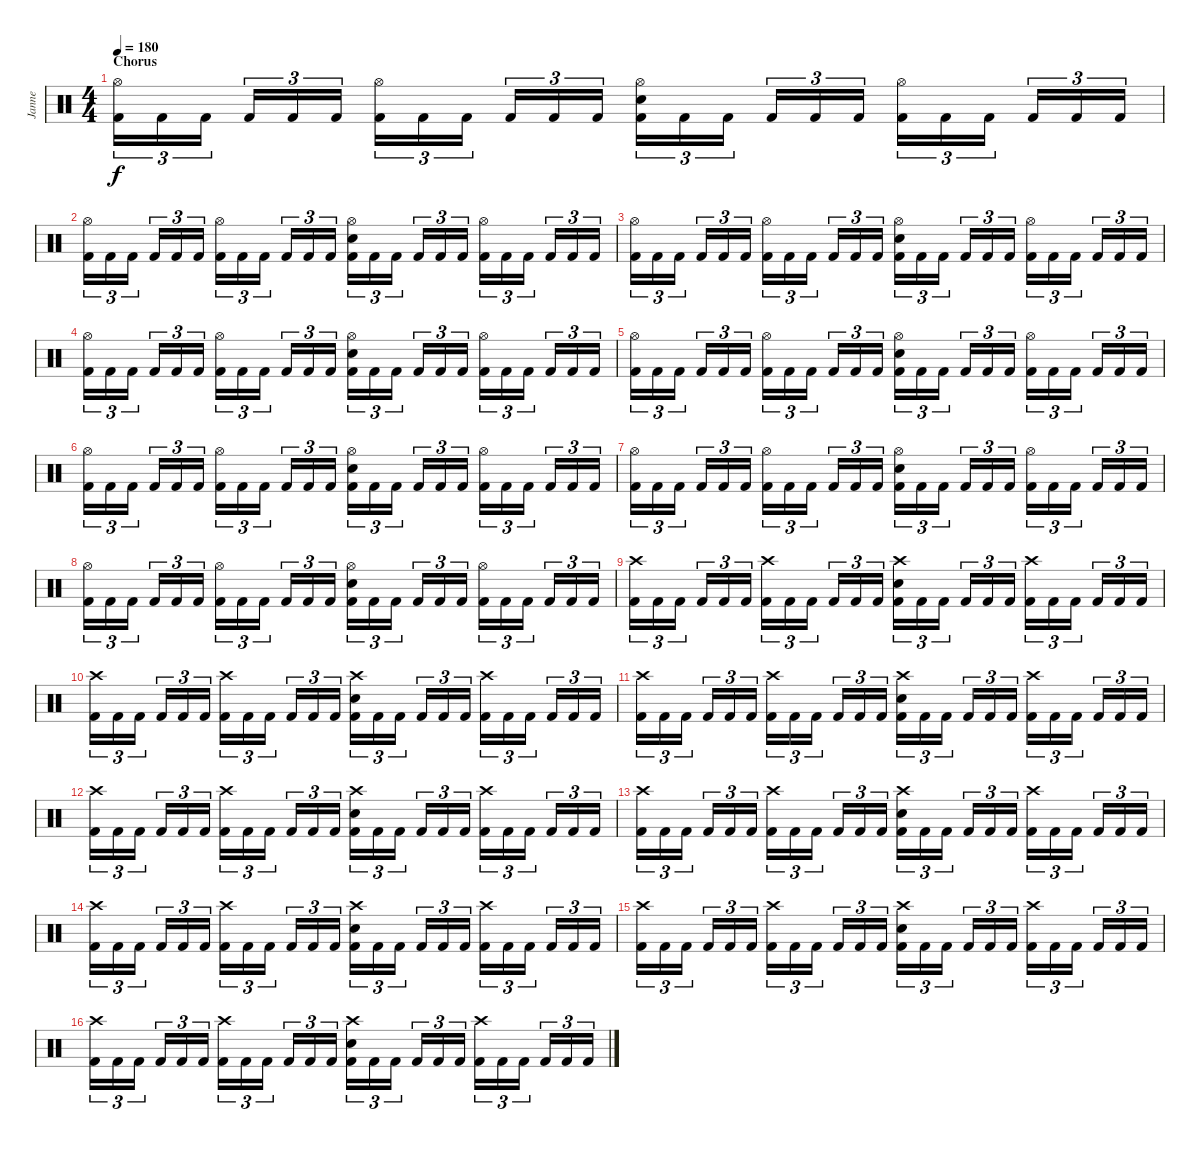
\track ("Janne" "Janne") {instrument percussion}
\staff {score}
\articulation defaults
\ts (4 4)
\section ("" "Chorus")
\tempo 180
\clef neutral
\ks c
("Hi-Hat (open)" "Kick (hit) 2").16{tu (3 2) dy f} "Kick (hit) 2".16{tu (3 2)} "Kick (hit) 2".16{tu (3 2)} "Kick (hit) 2".16{tu (3 2)} "Kick (hit) 2".16{tu (3 2)} "Kick (hit) 2".16{tu (3 2)} ("Hi-Hat (open)" "Kick (hit) 2").16{tu (3 2)} "Kick (hit) 2".16{tu (3 2)} "Kick (hit) 2".16{tu (3 2)} "Kick (hit) 2".16{tu (3 2)} "Kick (hit) 2".16{tu (3 2)} "Kick (hit) 2".16{tu (3 2)} ("Hi-Hat (open)" "Electric Snare (hit)" "Kick (hit) 2").16{tu (3 2)} "Kick (hit) 2".16{tu (3 2)} "Kick (hit) 2".16{tu (3 2)} "Kick (hit) 2".16{tu (3 2)} "Kick (hit) 2".16{tu (3 2)} "Kick (hit) 2".16{tu (3 2)} ("Hi-Hat (open)" "Kick (hit) 2").16{tu (3 2)} "Kick (hit) 2".16{tu (3 2)} "Kick (hit) 2".16{tu (3 2)} "Kick (hit) 2".16{tu (3 2)} "Kick (hit) 2".16{tu (3 2)} "Kick (hit) 2".16{tu (3 2)} |
("Hi-Hat (open)" "Kick (hit) 2").16{tu (3 2)} "Kick (hit) 2".16{tu (3 2)} "Kick (hit) 2".16{tu (3 2)} "Kick (hit) 2".16{tu (3 2)} "Kick (hit) 2".16{tu (3 2)} "Kick (hit) 2".16{tu (3 2)} ("Hi-Hat (open)" "Kick (hit) 2").16{tu (3 2)} "Kick (hit) 2".16{tu (3 2)} "Kick (hit) 2".16{tu (3 2)} "Kick (hit) 2".16{tu (3 2)} "Kick (hit) 2".16{tu (3 2)} "Kick (hit) 2".16{tu (3 2)} ("Hi-Hat (open)" "Electric Snare (hit)" "Kick (hit) 2").16{tu (3 2)} "Kick (hit) 2".16{tu (3 2)} "Kick (hit) 2".16{tu (3 2)} "Kick (hit) 2".16{tu (3 2)} "Kick (hit) 2".16{tu (3 2)} "Kick (hit) 2".16{tu (3 2)} ("Hi-Hat (open)" "Kick (hit) 2").16{tu (3 2)} "Kick (hit) 2".16{tu (3 2)} "Kick (hit) 2".16{tu (3 2)} "Kick (hit) 2".16{tu (3 2)} "Kick (hit) 2".16{tu (3 2)} "Kick (hit) 2".16{tu (3 2)} |
("Hi-Hat (open)" "Kick (hit) 2").16{tu (3 2)} "Kick (hit) 2".16{tu (3 2)} "Kick (hit) 2".16{tu (3 2)} "Kick (hit) 2".16{tu (3 2)} "Kick (hit) 2".16{tu (3 2)} "Kick (hit) 2".16{tu (3 2)} ("Hi-Hat (open)" "Kick (hit) 2").16{tu (3 2)} "Kick (hit) 2".16{tu (3 2)} "Kick (hit) 2".16{tu (3 2)} "Kick (hit) 2".16{tu (3 2)} "Kick (hit) 2".16{tu (3 2)} "Kick (hit) 2".16{tu (3 2)} ("Hi-Hat (open)" "Electric Snare (hit)" "Kick (hit) 2").16{tu (3 2)} "Kick (hit) 2".16{tu (3 2)} "Kick (hit) 2".16{tu (3 2)} "Kick (hit) 2".16{tu (3 2)} "Kick (hit) 2".16{tu (3 2)} "Kick (hit) 2".16{tu (3 2)} ("Hi-Hat (open)" "Kick (hit) 2").16{tu (3 2)} "Kick (hit) 2".16{tu (3 2)} "Kick (hit) 2".16{tu (3 2)} "Kick (hit) 2".16{tu (3 2)} "Kick (hit) 2".16{tu (3 2)} "Kick (hit) 2".16{tu (3 2)} |
("Hi-Hat (open)" "Kick (hit) 2").16{tu (3 2)} "Kick (hit) 2".16{tu (3 2)} "Kick (hit) 2".16{tu (3 2)} "Kick (hit) 2".16{tu (3 2)} "Kick (hit) 2".16{tu (3 2)} "Kick (hit) 2".16{tu (3 2)} ("Hi-Hat (open)" "Kick (hit) 2").16{tu (3 2)} "Kick (hit) 2".16{tu (3 2)} "Kick (hit) 2".16{tu (3 2)} "Kick (hit) 2".16{tu (3 2)} "Kick (hit) 2".16{tu (3 2)} "Kick (hit) 2".16{tu (3 2)} ("Hi-Hat (open)" "Electric Snare (hit)" "Kick (hit) 2").16{tu (3 2)} "Kick (hit) 2".16{tu (3 2)} "Kick (hit) 2".16{tu (3 2)} "Kick (hit) 2".16{tu (3 2)} "Kick (hit) 2".16{tu (3 2)} "Kick (hit) 2".16{tu (3 2)} ("Hi-Hat (open)" "Kick (hit) 2").16{tu (3 2)} "Kick (hit) 2".16{tu (3 2)} "Kick (hit) 2".16{tu (3 2)} "Kick (hit) 2".16{tu (3 2)} "Kick (hit) 2".16{tu (3 2)} "Kick (hit) 2".16{tu (3 2)} |
("Hi-Hat (open)" "Kick (hit) 2").16{tu (3 2)} "Kick (hit) 2".16{tu (3 2)} "Kick (hit) 2".16{tu (3 2)} "Kick (hit) 2".16{tu (3 2)} "Kick (hit) 2".16{tu (3 2)} "Kick (hit) 2".16{tu (3 2)} ("Hi-Hat (open)" "Kick (hit) 2").16{tu (3 2)} "Kick (hit) 2".16{tu (3 2)} "Kick (hit) 2".16{tu (3 2)} "Kick (hit) 2".16{tu (3 2)} "Kick (hit) 2".16{tu (3 2)} "Kick (hit) 2".16{tu (3 2)} ("Hi-Hat (open)" "Electric Snare (hit)" "Kick (hit) 2").16{tu (3 2)} "Kick (hit) 2".16{tu (3 2)} "Kick (hit) 2".16{tu (3 2)} "Kick (hit) 2".16{tu (3 2)} "Kick (hit) 2".16{tu (3 2)} "Kick (hit) 2".16{tu (3 2)} ("Hi-Hat (open)" "Kick (hit) 2").16{tu (3 2)} "Kick (hit) 2".16{tu (3 2)} "Kick (hit) 2".16{tu (3 2)} "Kick (hit) 2".16{tu (3 2)} "Kick (hit) 2".16{tu (3 2)} "Kick (hit) 2".16{tu (3 2)} |
("Hi-Hat (open)" "Kick (hit) 2").16{tu (3 2)} "Kick (hit) 2".16{tu (3 2)} "Kick (hit) 2".16{tu (3 2)} "Kick (hit) 2".16{tu (3 2)} "Kick (hit) 2".16{tu (3 2)} "Kick (hit) 2".16{tu (3 2)} ("Hi-Hat (open)" "Kick (hit) 2").16{tu (3 2)} "Kick (hit) 2".16{tu (3 2)} "Kick (hit) 2".16{tu (3 2)} "Kick (hit) 2".16{tu (3 2)} "Kick (hit) 2".16{tu (3 2)} "Kick (hit) 2".16{tu (3 2)} ("Hi-Hat (open)" "Electric Snare (hit)" "Kick (hit) 2").16{tu (3 2)} "Kick (hit) 2".16{tu (3 2)} "Kick (hit) 2".16{tu (3 2)} "Kick (hit) 2".16{tu (3 2)} "Kick (hit) 2".16{tu (3 2)} "Kick (hit) 2".16{tu (3 2)} ("Hi-Hat (open)" "Kick (hit) 2").16{tu (3 2)} "Kick (hit) 2".16{tu (3 2)} "Kick (hit) 2".16{tu (3 2)} "Kick (hit) 2".16{tu (3 2)} "Kick (hit) 2".16{tu (3 2)} "Kick (hit) 2".16{tu (3 2)} |
("Hi-Hat (open)" "Kick (hit) 2").16{tu (3 2)} "Kick (hit) 2".16{tu (3 2)} "Kick (hit) 2".16{tu (3 2)} "Kick (hit) 2".16{tu (3 2)} "Kick (hit) 2".16{tu (3 2)} "Kick (hit) 2".16{tu (3 2)} ("Hi-Hat (open)" "Kick (hit) 2").16{tu (3 2)} "Kick (hit) 2".16{tu (3 2)} "Kick (hit) 2".16{tu (3 2)} "Kick (hit) 2".16{tu (3 2)} "Kick (hit) 2".16{tu (3 2)} "Kick (hit) 2".16{tu (3 2)} ("Hi-Hat (open)" "Electric Snare (hit)" "Kick (hit) 2").16{tu (3 2)} "Kick (hit) 2".16{tu (3 2)} "Kick (hit) 2".16{tu (3 2)} "Kick (hit) 2".16{tu (3 2)} "Kick (hit) 2".16{tu (3 2)} "Kick (hit) 2".16{tu (3 2)} ("Hi-Hat (open)" "Kick (hit) 2").16{tu (3 2)} "Kick (hit) 2".16{tu (3 2)} "Kick (hit) 2".16{tu (3 2)} "Kick (hit) 2".16{tu (3 2)} "Kick (hit) 2".16{tu (3 2)} "Kick (hit) 2".16{tu (3 2)} |
("Hi-Hat (open)" "Kick (hit) 2").16{tu (3 2)} "Kick (hit) 2".16{tu (3 2)} "Kick (hit) 2".16{tu (3 2)} "Kick (hit) 2".16{tu (3 2)} "Kick (hit) 2".16{tu (3 2)} "Kick (hit) 2".16{tu (3 2)} ("Hi-Hat (open)" "Kick (hit) 2").16{tu (3 2)} "Kick (hit) 2".16{tu (3 2)} "Kick (hit) 2".16{tu (3 2)} "Kick (hit) 2".16{tu (3 2)} "Kick (hit) 2".16{tu (3 2)} "Kick (hit) 2".16{tu (3 2)} ("Hi-Hat (open)" "Electric Snare (hit)" "Kick (hit) 2").16{tu (3 2)} "Kick (hit) 2".16{tu (3 2)} "Kick (hit) 2".16{tu (3 2)} "Kick (hit) 2".16{tu (3 2)} "Kick (hit) 2".16{tu (3 2)} "Kick (hit) 2".16{tu (3 2)} ("Hi-Hat (open)" "Kick (hit) 2").16{tu (3 2)} "Kick (hit) 2".16{tu (3 2)} "Kick (hit) 2".16{tu (3 2)} "Kick (hit) 2".16{tu (3 2)} "Kick (hit) 2".16{tu (3 2)} "Kick (hit) 2".16{tu (3 2)} |
("Crash high (hit)" "Kick (hit) 2").16{tu (3 2)} "Kick (hit) 2".16{tu (3 2)} "Kick (hit) 2".16{tu (3 2)} "Kick (hit) 2".16{tu (3 2)} "Kick (hit) 2".16{tu (3 2)} "Kick (hit) 2".16{tu (3 2)} ("Crash high (hit)" "Kick (hit) 2").16{tu (3 2)} "Kick (hit) 2".16{tu (3 2)} "Kick (hit) 2".16{tu (3 2)} "Kick (hit) 2".16{tu (3 2)} "Kick (hit) 2".16{tu (3 2)} "Kick (hit) 2".16{tu (3 2)} ("Crash high (hit)" "Electric Snare (hit)" "Kick (hit) 2").16{tu (3 2)} "Kick (hit) 2".16{tu (3 2)} "Kick (hit) 2".16{tu (3 2)} "Kick (hit) 2".16{tu (3 2)} "Kick (hit) 2".16{tu (3 2)} "Kick (hit) 2".16{tu (3 2)} ("Crash high (hit)" "Kick (hit) 2").16{tu (3 2)} "Kick (hit) 2".16{tu (3 2)} "Kick (hit) 2".16{tu (3 2)} "Kick (hit) 2".16{tu (3 2)} "Kick (hit) 2".16{tu (3 2)} "Kick (hit) 2".16{tu (3 2)} |
("Crash high (hit)" "Kick (hit) 2").16{tu (3 2)} "Kick (hit) 2".16{tu (3 2)} "Kick (hit) 2".16{tu (3 2)} "Kick (hit) 2".16{tu (3 2)} "Kick (hit) 2".16{tu (3 2)} "Kick (hit) 2".16{tu (3 2)} ("Crash high (hit)" "Kick (hit) 2").16{tu (3 2)} "Kick (hit) 2".16{tu (3 2)} "Kick (hit) 2".16{tu (3 2)} "Kick (hit) 2".16{tu (3 2)} "Kick (hit) 2".16{tu (3 2)} "Kick (hit) 2".16{tu (3 2)} ("Crash high (hit)" "Electric Snare (hit)" "Kick (hit) 2").16{tu (3 2)} "Kick (hit) 2".16{tu (3 2)} "Kick (hit) 2".16{tu (3 2)} "Kick (hit) 2".16{tu (3 2)} "Kick (hit) 2".16{tu (3 2)} "Kick (hit) 2".16{tu (3 2)} ("Crash high (hit)" "Kick (hit) 2").16{tu (3 2)} "Kick (hit) 2".16{tu (3 2)} "Kick (hit) 2".16{tu (3 2)} "Kick (hit) 2".16{tu (3 2)} "Kick (hit) 2".16{tu (3 2)} "Kick (hit) 2".16{tu (3 2)} |
("Crash high (hit)" "Kick (hit) 2").16{tu (3 2)} "Kick (hit) 2".16{tu (3 2)} "Kick (hit) 2".16{tu (3 2)} "Kick (hit) 2".16{tu (3 2)} "Kick (hit) 2".16{tu (3 2)} "Kick (hit) 2".16{tu (3 2)} ("Crash high (hit)" "Kick (hit) 2").16{tu (3 2)} "Kick (hit) 2".16{tu (3 2)} "Kick (hit) 2".16{tu (3 2)} "Kick (hit) 2".16{tu (3 2)} "Kick (hit) 2".16{tu (3 2)} "Kick (hit) 2".16{tu (3 2)} ("Crash high (hit)" "Electric Snare (hit)" "Kick (hit) 2").16{tu (3 2)} "Kick (hit) 2".16{tu (3 2)} "Kick (hit) 2".16{tu (3 2)} "Kick (hit) 2".16{tu (3 2)} "Kick (hit) 2".16{tu (3 2)} "Kick (hit) 2".16{tu (3 2)} ("Crash high (hit)" "Kick (hit) 2").16{tu (3 2)} "Kick (hit) 2".16{tu (3 2)} "Kick (hit) 2".16{tu (3 2)} "Kick (hit) 2".16{tu (3 2)} "Kick (hit) 2".16{tu (3 2)} "Kick (hit) 2".16{tu (3 2)} |
("Crash high (hit)" "Kick (hit) 2").16{tu (3 2)} "Kick (hit) 2".16{tu (3 2)} "Kick (hit) 2".16{tu (3 2)} "Kick (hit) 2".16{tu (3 2)} "Kick (hit) 2".16{tu (3 2)} "Kick (hit) 2".16{tu (3 2)} ("Crash high (hit)" "Kick (hit) 2").16{tu (3 2)} "Kick (hit) 2".16{tu (3 2)} "Kick (hit) 2".16{tu (3 2)} "Kick (hit) 2".16{tu (3 2)} "Kick (hit) 2".16{tu (3 2)} "Kick (hit) 2".16{tu (3 2)} ("Crash high (hit)" "Electric Snare (hit)" "Kick (hit) 2").16{tu (3 2)} "Kick (hit) 2".16{tu (3 2)} "Kick (hit) 2".16{tu (3 2)} "Kick (hit) 2".16{tu (3 2)} "Kick (hit) 2".16{tu (3 2)} "Kick (hit) 2".16{tu (3 2)} ("Crash high (hit)" "Kick (hit) 2").16{tu (3 2)} "Kick (hit) 2".16{tu (3 2)} "Kick (hit) 2".16{tu (3 2)} "Kick (hit) 2".16{tu (3 2)} "Kick (hit) 2".16{tu (3 2)} "Kick (hit) 2".16{tu (3 2)} |
("Crash high (hit)" "Kick (hit) 2").16{tu (3 2)} "Kick (hit) 2".16{tu (3 2)} "Kick (hit) 2".16{tu (3 2)} "Kick (hit) 2".16{tu (3 2)} "Kick (hit) 2".16{tu (3 2)} "Kick (hit) 2".16{tu (3 2)} ("Crash high (hit)" "Kick (hit) 2").16{tu (3 2)} "Kick (hit) 2".16{tu (3 2)} "Kick (hit) 2".16{tu (3 2)} "Kick (hit) 2".16{tu (3 2)} "Kick (hit) 2".16{tu (3 2)} "Kick (hit) 2".16{tu (3 2)} ("Crash high (hit)" "Electric Snare (hit)" "Kick (hit) 2").16{tu (3 2)} "Kick (hit) 2".16{tu (3 2)} "Kick (hit) 2".16{tu (3 2)} "Kick (hit) 2".16{tu (3 2)} "Kick (hit) 2".16{tu (3 2)} "Kick (hit) 2".16{tu (3 2)} ("Crash high (hit)" "Kick (hit) 2").16{tu (3 2)} "Kick (hit) 2".16{tu (3 2)} "Kick (hit) 2".16{tu (3 2)} "Kick (hit) 2".16{tu (3 2)} "Kick (hit) 2".16{tu (3 2)} "Kick (hit) 2".16{tu (3 2)} |
("Crash high (hit)" "Kick (hit) 2").16{tu (3 2)} "Kick (hit) 2".16{tu (3 2)} "Kick (hit) 2".16{tu (3 2)} "Kick (hit) 2".16{tu (3 2)} "Kick (hit) 2".16{tu (3 2)} "Kick (hit) 2".16{tu (3 2)} ("Crash high (hit)" "Kick (hit) 2").16{tu (3 2)} "Kick (hit) 2".16{tu (3 2)} "Kick (hit) 2".16{tu (3 2)} "Kick (hit) 2".16{tu (3 2)} "Kick (hit) 2".16{tu (3 2)} "Kick (hit) 2".16{tu (3 2)} ("Crash high (hit)" "Electric Snare (hit)" "Kick (hit) 2").16{tu (3 2)} "Kick (hit) 2".16{tu (3 2)} "Kick (hit) 2".16{tu (3 2)} "Kick (hit) 2".16{tu (3 2)} "Kick (hit) 2".16{tu (3 2)} "Kick (hit) 2".16{tu (3 2)} ("Crash high (hit)" "Kick (hit) 2").16{tu (3 2)} "Kick (hit) 2".16{tu (3 2)} "Kick (hit) 2".16{tu (3 2)} "Kick (hit) 2".16{tu (3 2)} "Kick (hit) 2".16{tu (3 2)} "Kick (hit) 2".16{tu (3 2)} |
("Crash high (hit)" "Kick (hit) 2").16{tu (3 2)} "Kick (hit) 2".16{tu (3 2)} "Kick (hit) 2".16{tu (3 2)} "Kick (hit) 2".16{tu (3 2)} "Kick (hit) 2".16{tu (3 2)} "Kick (hit) 2".16{tu (3 2)} ("Crash high (hit)" "Kick (hit) 2").16{tu (3 2)} "Kick (hit) 2".16{tu (3 2)} "Kick (hit) 2".16{tu (3 2)} "Kick (hit) 2".16{tu (3 2)} "Kick (hit) 2".16{tu (3 2)} "Kick (hit) 2".16{tu (3 2)} ("Crash high (hit)" "Electric Snare (hit)" "Kick (hit) 2").16{tu (3 2)} "Kick (hit) 2".16{tu (3 2)} "Kick (hit) 2".16{tu (3 2)} "Kick (hit) 2".16{tu (3 2)} "Kick (hit) 2".16{tu (3 2)} "Kick (hit) 2".16{tu (3 2)} ("Crash high (hit)" "Kick (hit) 2").16{tu (3 2)} "Kick (hit) 2".16{tu (3 2)} "Kick (hit) 2".16{tu (3 2)} "Kick (hit) 2".16{tu (3 2)} "Kick (hit) 2".16{tu (3 2)} "Kick (hit) 2".16{tu (3 2)} |
("Crash high (hit)" "Kick (hit) 2").16{tu (3 2)} "Kick (hit) 2".16{tu (3 2)} "Kick (hit) 2".16{tu (3 2)} "Kick (hit) 2".16{tu (3 2)} "Kick (hit) 2".16{tu (3 2)} "Kick (hit) 2".16{tu (3 2)} ("Crash high (hit)" "Kick (hit) 2").16{tu (3 2)} "Kick (hit) 2".16{tu (3 2)} "Kick (hit) 2".16{tu (3 2)} "Kick (hit) 2".16{tu (3 2)} "Kick (hit) 2".16{tu (3 2)} "Kick (hit) 2".16{tu (3 2)} ("Crash high (hit)" "Electric Snare (hit)" "Kick (hit) 2").16{tu (3 2)} "Kick (hit) 2".16{tu (3 2)} "Kick (hit) 2".16{tu (3 2)} "Kick (hit) 2".16{tu (3 2)} "Kick (hit) 2".16{tu (3 2)} "Kick (hit) 2".16{tu (3 2)} ("Crash high (hit)" "Kick (hit) 2").16{tu (3 2)} "Kick (hit) 2".16{tu (3 2)} "Kick (hit) 2".16{tu (3 2)} "Kick (hit) 2".16{tu (3 2)} "Kick (hit) 2".16{tu (3 2)} "Kick (hit) 2".16{tu (3 2)}
